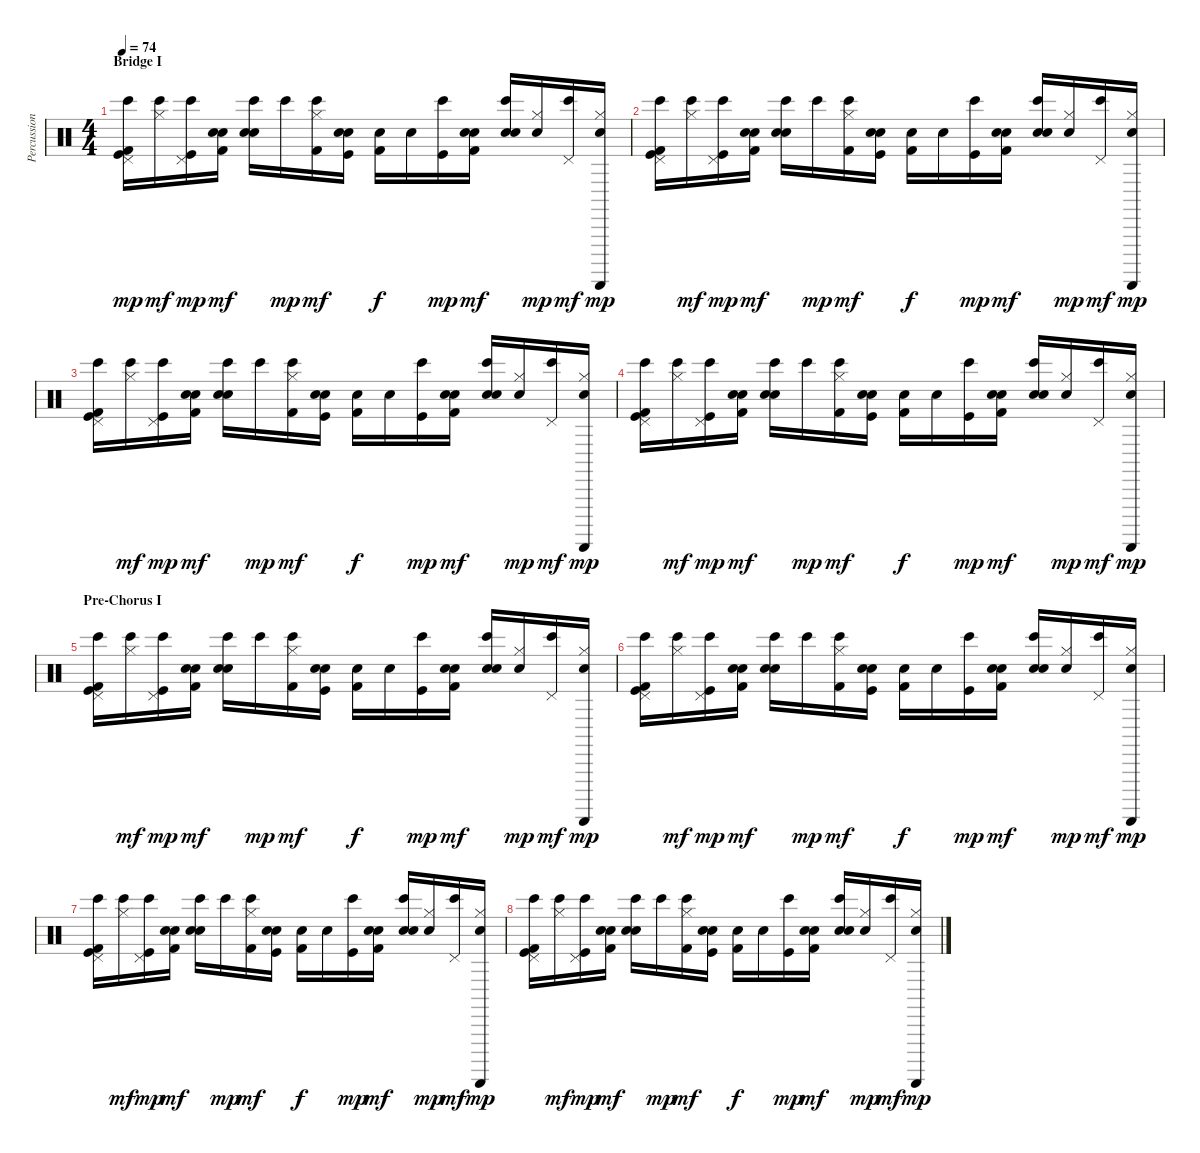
\track ("Percussion" "Percussion") {instrument percussion}
\staff {score}
\articulation defaults
\ts (4 4)
\section ("" "Bridge I")
\tempo 74
\clef neutral
\ks c
("Bongo High (hit)" "Pedal Hi-Hat (hit)" "Kick (hit) 2" "Kick (hit)").16{dy mp} ("Bongo High (hit)" "Hi-Hat (closed)").16{dy mf} ("Bongo High (hit)" "Pedal Hi-Hat (hit)" "Kick (hit)").16{dy mp} ("Snare (hit)" "Electric Snare (hit)" "Kick (hit) 2").16{dy mf} ("Bongo High (hit)" "Electric Snare (hit)" "Snare (hit) 2").16 "Bongo High (hit)".16{dy mp} ("Bongo High (hit)" "Hi-Hat (closed)" "Kick (hit) 2").16{dy mf} ("Snare (hit)" "Electric Snare (hit)" "Kick (hit)").16 ("Snare (hit)" "Kick (hit) 2").16{dy f} "Snare (hit)".16 ("Bongo High (hit)" "Kick (hit)").16{dy mp} ("Snare (hit)" "Electric Snare (hit)" "Kick (hit) 2").16{dy mf} ("Bongo High (hit)" "Electric Snare (hit)" "Snare (hit) 2").16 ("Snare (hit)" "Hi-Hat (closed)").16{dy mp} ("Bongo High (hit)" "Pedal Hi-Hat (hit)").16{dy mf} ("Snare (hit)" "Guiro (scrap-return)" "Hi-Hat (closed)").16{dy mp} |
("Bongo High (hit)" "Pedal Hi-Hat (hit)" "Kick (hit) 2" "Kick (hit)").16 ("Bongo High (hit)" "Hi-Hat (closed)").16{dy mf} ("Bongo High (hit)" "Pedal Hi-Hat (hit)" "Kick (hit)").16{dy mp} ("Snare (hit)" "Electric Snare (hit)" "Kick (hit) 2").16{dy mf} ("Bongo High (hit)" "Electric Snare (hit)" "Snare (hit) 2").16 "Bongo High (hit)".16{dy mp} ("Bongo High (hit)" "Hi-Hat (closed)" "Kick (hit) 2").16{dy mf} ("Snare (hit)" "Electric Snare (hit)" "Kick (hit)").16 ("Snare (hit)" "Kick (hit) 2").16{dy f} "Snare (hit)".16 ("Bongo High (hit)" "Kick (hit)").16{dy mp} ("Snare (hit)" "Electric Snare (hit)" "Kick (hit) 2").16{dy mf} ("Bongo High (hit)" "Electric Snare (hit)" "Snare (hit) 2").16 ("Snare (hit)" "Hi-Hat (closed)").16{dy mp} ("Bongo High (hit)" "Pedal Hi-Hat (hit)").16{dy mf} ("Snare (hit)" "Guiro (scrap-return)" "Hi-Hat (closed)").16{dy mp} |
("Bongo High (hit)" "Pedal Hi-Hat (hit)" "Kick (hit) 2" "Kick (hit)").16 ("Bongo High (hit)" "Hi-Hat (closed)").16{dy mf} ("Bongo High (hit)" "Pedal Hi-Hat (hit)" "Kick (hit)").16{dy mp} ("Snare (hit)" "Electric Snare (hit)" "Kick (hit) 2").16{dy mf} ("Bongo High (hit)" "Electric Snare (hit)" "Snare (hit) 2").16 "Bongo High (hit)".16{dy mp} ("Bongo High (hit)" "Hi-Hat (closed)" "Kick (hit) 2").16{dy mf} ("Snare (hit)" "Electric Snare (hit)" "Kick (hit)").16 ("Snare (hit)" "Kick (hit) 2").16{dy f} "Snare (hit)".16 ("Bongo High (hit)" "Kick (hit)").16{dy mp} ("Snare (hit)" "Electric Snare (hit)" "Kick (hit) 2").16{dy mf} ("Bongo High (hit)" "Electric Snare (hit)" "Snare (hit) 2").16 ("Snare (hit)" "Hi-Hat (closed)").16{dy mp} ("Bongo High (hit)" "Pedal Hi-Hat (hit)").16{dy mf} ("Snare (hit)" "Guiro (scrap-return)" "Hi-Hat (closed)").16{dy mp} |
("Bongo High (hit)" "Pedal Hi-Hat (hit)" "Kick (hit) 2" "Kick (hit)").16 ("Bongo High (hit)" "Hi-Hat (closed)").16{dy mf} ("Bongo High (hit)" "Pedal Hi-Hat (hit)" "Kick (hit)").16{dy mp} ("Snare (hit)" "Electric Snare (hit)" "Kick (hit) 2").16{dy mf} ("Bongo High (hit)" "Electric Snare (hit)" "Snare (hit) 2").16 "Bongo High (hit)".16{dy mp} ("Bongo High (hit)" "Hi-Hat (closed)" "Kick (hit) 2").16{dy mf} ("Snare (hit)" "Electric Snare (hit)" "Kick (hit)").16 ("Snare (hit)" "Kick (hit) 2").16{dy f} "Snare (hit)".16 ("Bongo High (hit)" "Kick (hit)").16{dy mp} ("Snare (hit)" "Electric Snare (hit)" "Kick (hit) 2").16{dy mf} ("Bongo High (hit)" "Electric Snare (hit)" "Snare (hit) 2").16 ("Snare (hit)" "Hi-Hat (closed)").16{dy mp} ("Bongo High (hit)" "Pedal Hi-Hat (hit)").16{dy mf} ("Snare (hit)" "Guiro (scrap-return)" "Hi-Hat (closed)").16{dy mp} |
\section ("" "Pre-Chorus I")
("Bongo High (hit)" "Pedal Hi-Hat (hit)" "Kick (hit) 2" "Kick (hit)").16 ("Bongo High (hit)" "Hi-Hat (closed)").16{dy mf} ("Bongo High (hit)" "Pedal Hi-Hat (hit)" "Kick (hit)").16{dy mp} ("Snare (hit)" "Electric Snare (hit)" "Kick (hit) 2").16{dy mf} ("Bongo High (hit)" "Electric Snare (hit)" "Snare (hit) 2").16 "Bongo High (hit)".16{dy mp} ("Bongo High (hit)" "Hi-Hat (closed)" "Kick (hit) 2").16{dy mf} ("Snare (hit)" "Electric Snare (hit)" "Kick (hit)").16 ("Snare (hit)" "Kick (hit) 2").16{dy f} "Snare (hit)".16 ("Bongo High (hit)" "Kick (hit)").16{dy mp} ("Snare (hit)" "Electric Snare (hit)" "Kick (hit) 2").16{dy mf} ("Bongo High (hit)" "Electric Snare (hit)" "Snare (hit) 2").16 ("Snare (hit)" "Hi-Hat (closed)").16{dy mp} ("Bongo High (hit)" "Pedal Hi-Hat (hit)").16{dy mf} ("Snare (hit)" "Guiro (scrap-return)" "Hi-Hat (closed)").16{dy mp} |
("Bongo High (hit)" "Pedal Hi-Hat (hit)" "Kick (hit) 2" "Kick (hit)").16 ("Bongo High (hit)" "Hi-Hat (closed)").16{dy mf} ("Bongo High (hit)" "Pedal Hi-Hat (hit)" "Kick (hit)").16{dy mp} ("Snare (hit)" "Electric Snare (hit)" "Kick (hit) 2").16{dy mf} ("Bongo High (hit)" "Electric Snare (hit)" "Snare (hit) 2").16 "Bongo High (hit)".16{dy mp} ("Bongo High (hit)" "Hi-Hat (closed)" "Kick (hit) 2").16{dy mf} ("Snare (hit)" "Electric Snare (hit)" "Kick (hit)").16 ("Snare (hit)" "Kick (hit) 2").16{dy f} "Snare (hit)".16 ("Bongo High (hit)" "Kick (hit)").16{dy mp} ("Snare (hit)" "Electric Snare (hit)" "Kick (hit) 2").16{dy mf} ("Bongo High (hit)" "Electric Snare (hit)" "Snare (hit) 2").16 ("Snare (hit)" "Hi-Hat (closed)").16{dy mp} ("Bongo High (hit)" "Pedal Hi-Hat (hit)").16{dy mf} ("Snare (hit)" "Guiro (scrap-return)" "Hi-Hat (closed)").16{dy mp} |
("Bongo High (hit)" "Pedal Hi-Hat (hit)" "Kick (hit) 2" "Kick (hit)").16 ("Bongo High (hit)" "Hi-Hat (closed)").16{dy mf} ("Bongo High (hit)" "Pedal Hi-Hat (hit)" "Kick (hit)").16{dy mp} ("Snare (hit)" "Electric Snare (hit)" "Kick (hit) 2").16{dy mf} ("Bongo High (hit)" "Electric Snare (hit)" "Snare (hit) 2").16 "Bongo High (hit)".16{dy mp} ("Bongo High (hit)" "Hi-Hat (closed)" "Kick (hit) 2").16{dy mf} ("Snare (hit)" "Electric Snare (hit)" "Kick (hit)").16 ("Snare (hit)" "Kick (hit) 2").16{dy f} "Snare (hit)".16 ("Bongo High (hit)" "Kick (hit)").16{dy mp} ("Snare (hit)" "Electric Snare (hit)" "Kick (hit) 2").16{dy mf} ("Bongo High (hit)" "Electric Snare (hit)" "Snare (hit) 2").16 ("Snare (hit)" "Hi-Hat (closed)").16{dy mp} ("Bongo High (hit)" "Pedal Hi-Hat (hit)").16{dy mf} ("Snare (hit)" "Guiro (scrap-return)" "Hi-Hat (closed)").16{dy mp} |
("Bongo High (hit)" "Pedal Hi-Hat (hit)" "Kick (hit) 2" "Kick (hit)").16 ("Bongo High (hit)" "Hi-Hat (closed)").16{dy mf} ("Bongo High (hit)" "Pedal Hi-Hat (hit)" "Kick (hit)").16{dy mp} ("Snare (hit)" "Electric Snare (hit)" "Kick (hit) 2").16{dy mf} ("Bongo High (hit)" "Electric Snare (hit)" "Snare (hit) 2").16 "Bongo High (hit)".16{dy mp} ("Bongo High (hit)" "Hi-Hat (closed)" "Kick (hit) 2").16{dy mf} ("Snare (hit)" "Electric Snare (hit)" "Kick (hit)").16 ("Snare (hit)" "Kick (hit) 2").16{dy f} "Snare (hit)".16 ("Bongo High (hit)" "Kick (hit)").16{dy mp} ("Snare (hit)" "Electric Snare (hit)" "Kick (hit) 2").16{dy mf} ("Bongo High (hit)" "Electric Snare (hit)" "Snare (hit) 2").16 ("Snare (hit)" "Hi-Hat (closed)").16{dy mp} ("Bongo High (hit)" "Pedal Hi-Hat (hit)").16{dy mf} ("Snare (hit)" "Guiro (scrap-return)" "Hi-Hat (closed)").16{dy mp}
